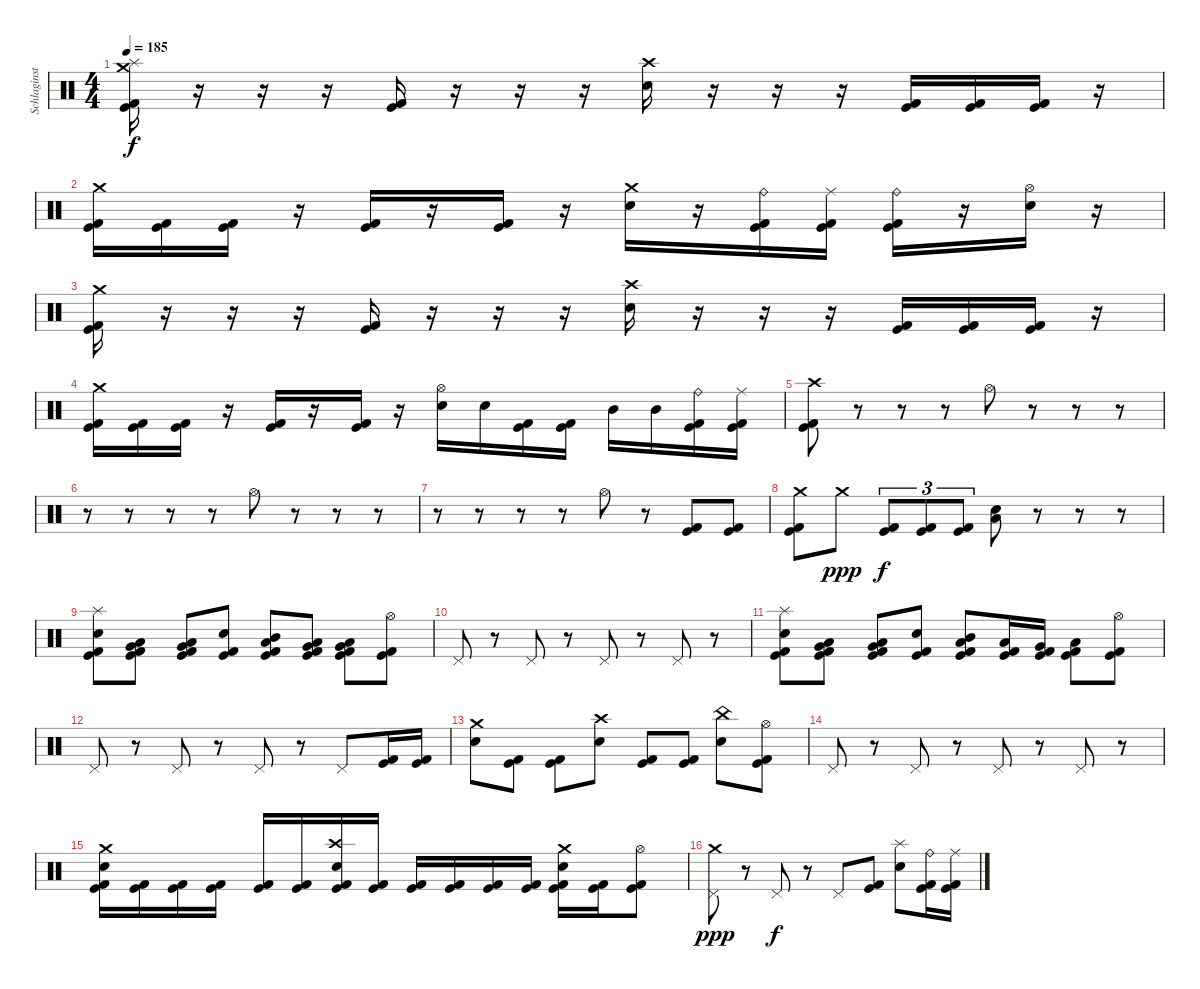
\track ("Schlaginstrumente - Auswahl" "Schlaginst") {instrument percussion}
\staff {score}
\articulation defaults
\ts (4 4)
\tempo 185
\clef neutral
\ks c
("Crash medium (hit)" "Splash (hit)" "Kick (hit)" "Kick (hit) 2").16{dy f} r.16 r.16 r.16 ("Kick (hit)" "Kick (hit) 2").16 r.16 r.16 r.16 ("Crash high (hit)" "Electric Snare (hit)").16 r.16 r.16 r.16 ("Kick (hit)" "Kick (hit) 2").16 ("Kick (hit)" "Kick (hit) 2").16 ("Kick (hit)" "Kick (hit) 2").16 r.16 |
("Crash medium (hit)" "Kick (hit)" "Kick (hit) 2").16 ("Kick (hit)" "Kick (hit) 2").16 ("Kick (hit)" "Kick (hit) 2").16 r.16 ("Kick (hit)" "Kick (hit) 2").16 r.16 ("Kick (hit)" "Kick (hit) 2").16 r.16 ("Crash medium (hit)" "Electric Snare (hit)").16 r.16 ("Ride (bell)" "Kick (hit)" "Kick (hit) 2").16 ("Ride (middle)" "Kick (hit)" "Kick (hit) 2").16 ("Ride (bell)" "Kick (hit)" "Kick (hit) 2").16 r.16 ("Hi-Hat (open)" "Electric Snare (hit)").16 r.16 |
("Crash medium (hit)" "Kick (hit)" "Kick (hit) 2").16 r.16 r.16 r.16 ("Kick (hit)" "Kick (hit) 2").16 r.16 r.16 r.16 ("Crash high (hit)" "Electric Snare (hit)").16 r.16 r.16 r.16 ("Kick (hit)" "Kick (hit) 2").16 ("Kick (hit)" "Kick (hit) 2").16 ("Kick (hit)" "Kick (hit) 2").16 r.16 |
("Crash medium (hit)" "Kick (hit)" "Kick (hit) 2").16 ("Kick (hit)" "Kick (hit) 2").16 ("Kick (hit)" "Kick (hit) 2").16 r.16 ("Kick (hit)" "Kick (hit) 2").16 r.16 ("Kick (hit)" "Kick (hit) 2").16 r.16 ("Hi-Hat (open)" "Electric Snare (hit)").16 "Electric Snare (hit)".16 ("Kick (hit)" "Kick (hit) 2").16 ("Kick (hit)" "Kick (hit) 2").16 "Mid Tom (hit)".16 "Mid Tom (hit)".16 ("Ride (bell)" "Kick (hit)" "Kick (hit) 2").16 ("Ride (middle)" "Kick (hit)" "Kick (hit) 2").16 |
("Crash high (hit)" "Kick (hit)" "Kick (hit) 2").8 r.8 r.8 r.8 "Hi-Hat (open)".8 r.8 r.8 r.8 |
r.8 r.8 r.8 r.8 "Hi-Hat (open)".8 r.8 r.8 r.8 |
r.8 r.8 r.8 r.8 "Hi-Hat (open)".8 r.8 ("Kick (hit)" "Kick (hit) 2").8 ("Kick (hit)" "Kick (hit) 2").8 |
("Crash medium (hit)" "Kick (hit)" "Kick (hit) 2").8 "Crash medium (hit)".8{dy ppp} ("Kick (hit)" "Kick (hit) 2").8{tu (3 2) dy f} ("Kick (hit)" "Kick (hit) 2").8{tu (3 2)} ("Kick (hit)" "Kick (hit) 2").8{tu (3 2)} ("Low Floor Tom (hit)" "Electric Snare (hit)").8 r.8 r.8 r.8 |
("Splash (hit)" "Electric Snare (hit)" "Kick (hit)" "Kick (hit) 2").8 ("Very Low Tom (hit)" "Low Tom (hit)" "Kick (hit)" "Kick (hit) 2").8 ("Low Floor Tom (hit)" "Very Low Tom (hit)" "Kick (hit)" "Kick (hit) 2").8 ("Electric Snare (hit)" "Kick (hit)" "Kick (hit) 2").8 ("Low Tom (hit)" "Mid Tom (hit)" "Kick (hit)" "Kick (hit) 2").8 ("Very Low Tom (hit)" "Low Tom (hit)" "Kick (hit)" "Kick (hit) 2").8 ("Low Floor Tom (hit)" "Very Low Tom (hit)" "Kick (hit)" "Kick (hit) 2").8 ("Hi-Hat (open)" "Kick (hit)" "Kick (hit) 2").8 |
"Pedal Hi-Hat (hit)".8 r.8 "Pedal Hi-Hat (hit)".8 r.8 "Pedal Hi-Hat (hit)".8 r.8 "Pedal Hi-Hat (hit)".8 r.8 |
("Splash (hit)" "Electric Snare (hit)" "Kick (hit)" "Kick (hit) 2").8 ("Very Low Tom (hit)" "Low Tom (hit)" "Kick (hit)" "Kick (hit) 2").8 ("Low Floor Tom (hit)" "Very Low Tom (hit)" "Kick (hit)" "Kick (hit) 2").8 ("Electric Snare (hit)" "Kick (hit)" "Kick (hit) 2").8 ("Low Tom (hit)" "Mid Tom (hit)" "Kick (hit)" "Kick (hit) 2").8 ("Low Tom (hit)" "Kick (hit)" "Kick (hit) 2").16 ("Very Low Tom (hit)" "Kick (hit)" "Kick (hit) 2").16 ("Low Floor Tom (hit)" "Kick (hit)" "Kick (hit) 2").8 ("Hi-Hat (open)" "Kick (hit)" "Kick (hit) 2").8 |
"Pedal Hi-Hat (hit)".8 r.8 "Pedal Hi-Hat (hit)".8 r.8 "Pedal Hi-Hat (hit)".8 r.8 "Pedal Hi-Hat (hit)".8 ("Kick (hit)" "Kick (hit) 2").16 ("Kick (hit)" "Kick (hit) 2").16 |
("Crash medium (hit)" "Electric Snare (hit)").8 ("Kick (hit)" "Kick (hit) 2").8 ("Kick (hit)" "Kick (hit) 2").8 ("Crash high (hit)" "Electric Snare (hit)").8 ("Kick (hit)" "Kick (hit) 2").8 ("Kick (hit)" "Kick (hit) 2").8 ("China (hit)" "Electric Snare (hit)").8 ("Hi-Hat (open)" "Kick (hit)" "Kick (hit) 2").8 |
"Pedal Hi-Hat (hit)".8 r.8 "Pedal Hi-Hat (hit)".8 r.8 "Pedal Hi-Hat (hit)".8 r.8 "Pedal Hi-Hat (hit)".8 r.8 |
("Crash medium (hit)" "Electric Snare (hit)" "Kick (hit)" "Kick (hit) 2").16 ("Kick (hit)" "Kick (hit) 2").16 ("Kick (hit)" "Kick (hit) 2").16 ("Kick (hit)" "Kick (hit) 2").16 ("Kick (hit)" "Kick (hit) 2").16 ("Kick (hit)" "Kick (hit) 2").16 ("Crash high (hit)" "Electric Snare (hit)" "Kick (hit)" "Kick (hit) 2").16 ("Kick (hit)" "Kick (hit) 2").16 ("Kick (hit)" "Kick (hit) 2").16 ("Kick (hit)" "Kick (hit) 2").16 ("Kick (hit)" "Kick (hit) 2").16 ("Kick (hit)" "Kick (hit) 2").16 ("Crash medium (hit)" "Electric Snare (hit)" "Kick (hit)" "Kick (hit) 2").16 ("Kick (hit)" "Kick (hit) 2").16 ("Hi-Hat (open)" "Kick (hit)" "Kick (hit) 2").8 |
("Crash medium (hit)" "Pedal Hi-Hat (hit)").8{dy ppp} r.8 "Pedal Hi-Hat (hit)".8{dy f} r.8 "Pedal Hi-Hat (hit)".8 ("Kick (hit)" "Kick (hit) 2").8 ("Splash (hit)" "Electric Snare (hit)").8 ("Ride (bell)" "Kick (hit)" "Kick (hit) 2").16 ("Ride (middle)" "Kick (hit)" "Kick (hit) 2").16
